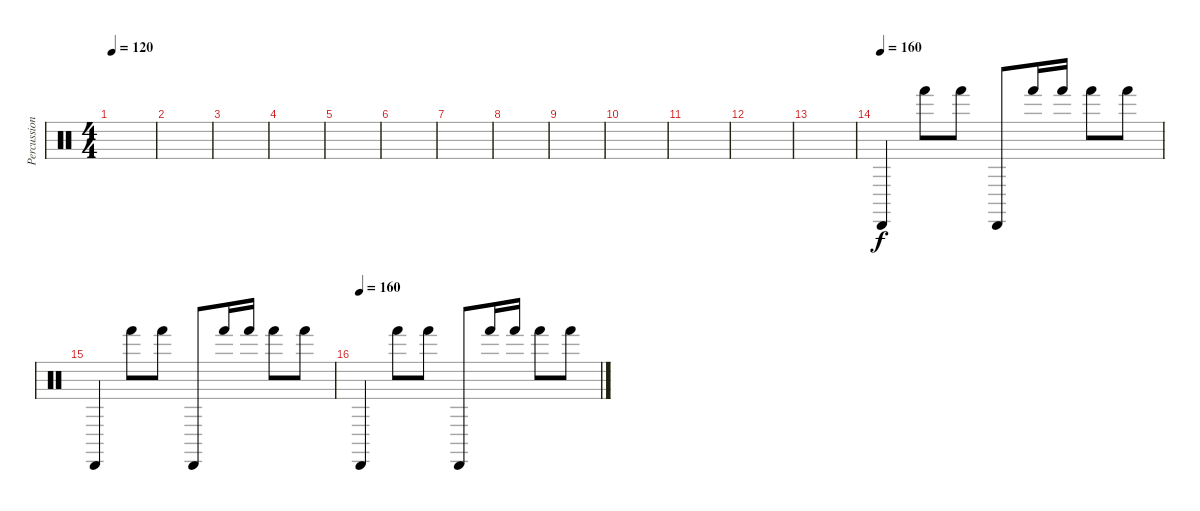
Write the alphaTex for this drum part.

\track ("Percussions" "Percussion") {instrument percussion}
\staff {score}
\articulation defaults
\ts (4 4)
\tempo 120
\clef neutral
\ks c
|
|
|
|
|
|
|
|
|
|
|
|
|
\tempo (160)
"Cabasa (hit)".4 "Hand (hit)".8 "Hand (hit)".8 "Cabasa (hit)".8 "Hand (hit)".16 "Hand (hit)".16 "Hand (hit)".8 "Hand (hit)".8 |
"Cabasa (hit)".4 "Hand (hit)".8 "Hand (hit)".8 "Cabasa (hit)".8 "Hand (hit)".16 "Hand (hit)".16 "Hand (hit)".8 "Hand (hit)".8 |
\tempo (160)
"Cabasa (hit)".4 "Hand (hit)".8 "Hand (hit)".8 "Cabasa (hit)".8 "Hand (hit)".16 "Hand (hit)".16 "Hand (hit)".8 "Hand (hit)".8
